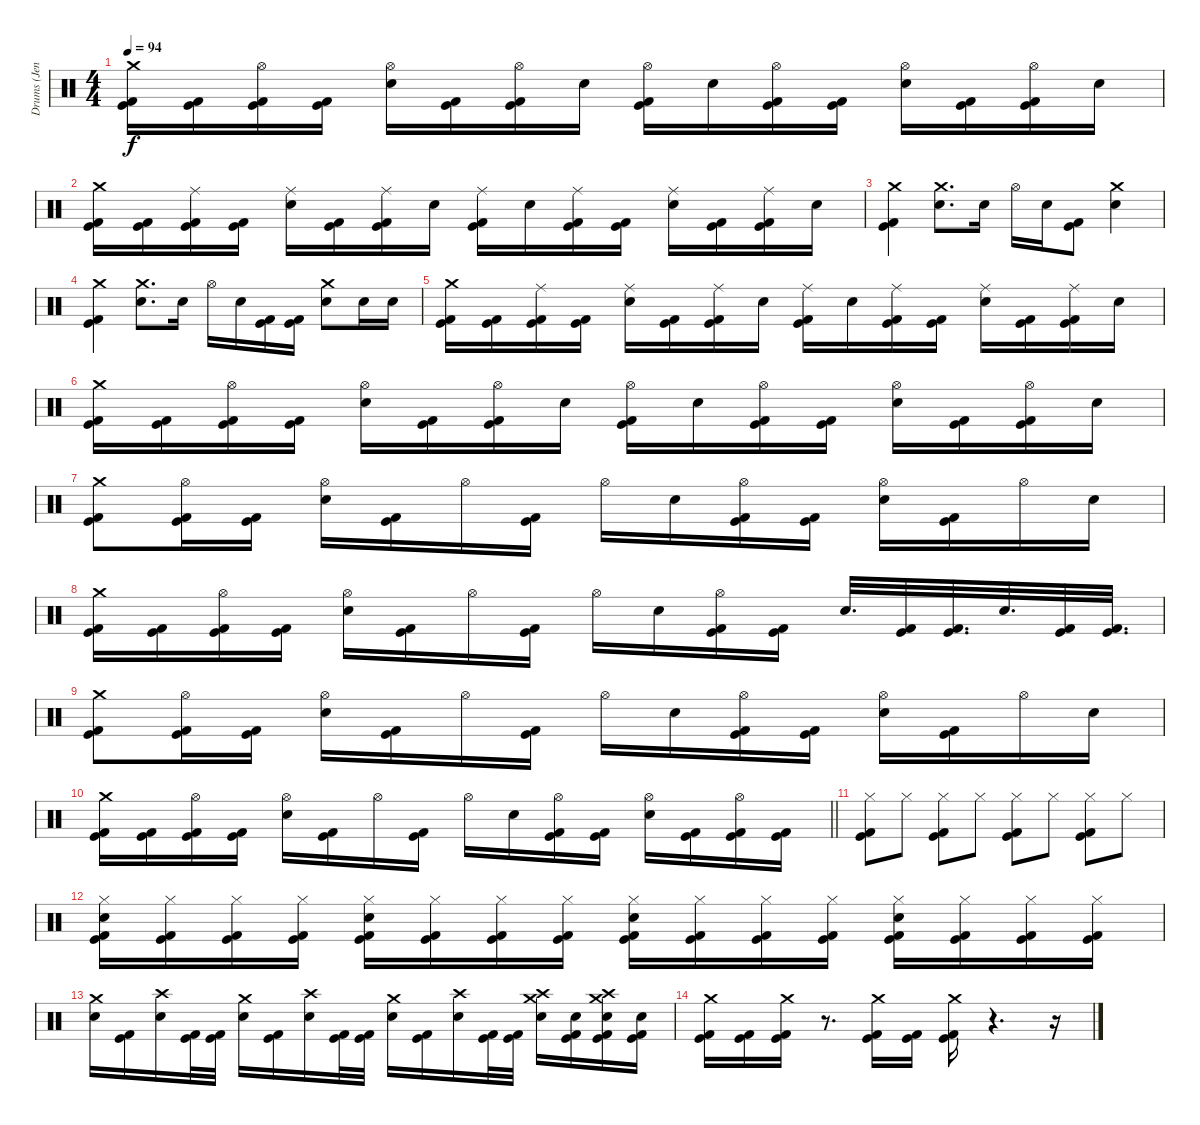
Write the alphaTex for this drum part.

\track ("Drums (Jen Ledger)" "Drums (Jen") {instrument percussion}
\staff {score}
\articulation defaults
\ts (4 4)
\tempo 94
\clef neutral
\ks c
("Crash medium (hit)" "Kick (hit) 2" "Kick (hit)").16{dy f} ("Kick (hit) 2" "Kick (hit)").16 ("Hi-Hat (open)" "Kick (hit) 2" "Kick (hit)").16 ("Kick (hit) 2" "Kick (hit)").16 ("Electric Snare (hit)" "Hi-Hat (open)").16 ("Kick (hit) 2" "Kick (hit)").16 ("Hi-Hat (open)" "Kick (hit) 2" "Kick (hit)").16 "Electric Snare (hit)".16 ("Hi-Hat (open)" "Kick (hit) 2" "Kick (hit)").16 "Electric Snare (hit)".16 ("Hi-Hat (open)" "Kick (hit) 2" "Kick (hit)").16 ("Kick (hit) 2" "Kick (hit)").16 ("Electric Snare (hit)" "Hi-Hat (open)").16 ("Kick (hit) 2" "Kick (hit)").16 ("Hi-Hat (open)" "Kick (hit) 2" "Kick (hit)").16 "Electric Snare (hit)".16 |
("Crash medium (hit)" "Kick (hit) 2" "Kick (hit)").16 ("Kick (hit) 2" "Kick (hit)").16 ("Ride (middle)" "Kick (hit) 2" "Kick (hit)").16 ("Kick (hit) 2" "Kick (hit)").16 ("Electric Snare (hit)" "Ride (middle)").16 ("Kick (hit) 2" "Kick (hit)").16 ("Ride (middle)" "Kick (hit) 2" "Kick (hit)").16 "Electric Snare (hit)".16 ("Ride (middle)" "Kick (hit) 2" "Kick (hit)").16 "Electric Snare (hit)".16 ("Ride (middle)" "Kick (hit) 2" "Kick (hit)").16 ("Kick (hit) 2" "Kick (hit)").16 ("Electric Snare (hit)" "Ride (middle)").16 ("Kick (hit) 2" "Kick (hit)").16 ("Ride (middle)" "Kick (hit) 2" "Kick (hit)").16 "Electric Snare (hit)".16 |
("Crash medium (hit)" "Kick (hit) 2" "Kick (hit)").4 ("Electric Snare (hit)" "Crash medium (hit)").8{d} "Electric Snare (hit)".16 "Hi-Hat (open)".16 "Electric Snare (hit)".16 ("Kick (hit) 2" "Kick (hit)").8 ("Electric Snare (hit)" "Crash medium (hit)").4 |
("Crash medium (hit)" "Kick (hit) 2" "Kick (hit)").4 ("Electric Snare (hit)" "Crash medium (hit)").8{d} "Electric Snare (hit)".16 "Hi-Hat (open)".16 "Electric Snare (hit)".16 ("Kick (hit) 2" "Kick (hit)").16 ("Kick (hit) 2" "Kick (hit)").16 ("Electric Snare (hit)" "Crash medium (hit)").8 "Electric Snare (hit)".16 "Electric Snare (hit)".16 |
("Crash medium (hit)" "Kick (hit) 2" "Kick (hit)").16 ("Kick (hit) 2" "Kick (hit)").16 ("Ride (middle)" "Kick (hit) 2" "Kick (hit)").16 ("Kick (hit) 2" "Kick (hit)").16 ("Electric Snare (hit)" "Ride (middle)").16 ("Kick (hit) 2" "Kick (hit)").16 ("Ride (middle)" "Kick (hit) 2" "Kick (hit)").16 "Electric Snare (hit)".16 ("Ride (middle)" "Kick (hit) 2" "Kick (hit)").16 "Electric Snare (hit)".16 ("Ride (middle)" "Kick (hit) 2" "Kick (hit)").16 ("Kick (hit) 2" "Kick (hit)").16 ("Electric Snare (hit)" "Ride (middle)").16 ("Kick (hit) 2" "Kick (hit)").16 ("Ride (middle)" "Kick (hit) 2" "Kick (hit)").16 "Electric Snare (hit)".16 |
("Crash medium (hit)" "Kick (hit) 2" "Kick (hit)").16 ("Kick (hit) 2" "Kick (hit)").16 ("Hi-Hat (open)" "Kick (hit) 2" "Kick (hit)").16 ("Kick (hit) 2" "Kick (hit)").16 ("Electric Snare (hit)" "Hi-Hat (open)").16 ("Kick (hit) 2" "Kick (hit)").16 ("Hi-Hat (open)" "Kick (hit) 2" "Kick (hit)").16 "Electric Snare (hit)".16 ("Hi-Hat (open)" "Kick (hit) 2" "Kick (hit)").16 "Electric Snare (hit)".16 ("Hi-Hat (open)" "Kick (hit) 2" "Kick (hit)").16 ("Kick (hit) 2" "Kick (hit)").16 ("Electric Snare (hit)" "Hi-Hat (open)").16 ("Kick (hit) 2" "Kick (hit)").16 ("Hi-Hat (open)" "Kick (hit) 2" "Kick (hit)").16 "Electric Snare (hit)".16 |
("Crash medium (hit)" "Kick (hit) 2" "Kick (hit)").8 ("Hi-Hat (open)" "Kick (hit) 2" "Kick (hit)").16 ("Kick (hit) 2" "Kick (hit)").16 ("Electric Snare (hit)" "Hi-Hat (open)").16 ("Kick (hit) 2" "Kick (hit)").16 "Hi-Hat (open)".16 ("Kick (hit) 2" "Kick (hit)").16 "Hi-Hat (open)".16 "Electric Snare (hit)".16 ("Hi-Hat (open)" "Kick (hit) 2" "Kick (hit)").16 ("Kick (hit) 2" "Kick (hit)").16 ("Electric Snare (hit)" "Hi-Hat (open)").16 ("Kick (hit) 2" "Kick (hit)").16 "Hi-Hat (open)".16 "Electric Snare (hit)".16 |
("Crash medium (hit)" "Kick (hit) 2" "Kick (hit)").16 ("Kick (hit) 2" "Kick (hit)").16 ("Hi-Hat (open)" "Kick (hit) 2" "Kick (hit)").16 ("Kick (hit) 2" "Kick (hit)").16 ("Electric Snare (hit)" "Hi-Hat (open)").16 ("Kick (hit) 2" "Kick (hit)").16 "Hi-Hat (open)".16 ("Kick (hit) 2" "Kick (hit)").16 "Hi-Hat (open)".16 "Electric Snare (hit)".16 ("Hi-Hat (open)" "Kick (hit) 2" "Kick (hit)").16 ("Kick (hit) 2" "Kick (hit)").16 "Electric Snare (hit)".32{d} ("Kick (hit) 2" "Kick (hit)").32 ("Kick (hit) 2" "Kick (hit)").32{d} "Electric Snare (hit)".32{d} ("Kick (hit) 2" "Kick (hit)").32 ("Kick (hit) 2" "Kick (hit)").32{d} |
("Crash medium (hit)" "Kick (hit) 2" "Kick (hit)").8 ("Hi-Hat (open)" "Kick (hit) 2" "Kick (hit)").16 ("Kick (hit) 2" "Kick (hit)").16 ("Electric Snare (hit)" "Hi-Hat (open)").16 ("Kick (hit) 2" "Kick (hit)").16 "Hi-Hat (open)".16 ("Kick (hit) 2" "Kick (hit)").16 "Hi-Hat (open)".16 "Electric Snare (hit)".16 ("Hi-Hat (open)" "Kick (hit) 2" "Kick (hit)").16 ("Kick (hit) 2" "Kick (hit)").16 ("Electric Snare (hit)" "Hi-Hat (open)").16 ("Kick (hit) 2" "Kick (hit)").16 "Hi-Hat (open)".16 "Electric Snare (hit)".16 |
\barLineRight lightlight
("Crash medium (hit)" "Kick (hit) 2" "Kick (hit)").16 ("Kick (hit) 2" "Kick (hit)").16 ("Hi-Hat (open)" "Kick (hit) 2" "Kick (hit)").16 ("Kick (hit) 2" "Kick (hit)").16 ("Electric Snare (hit)" "Hi-Hat (open)").16 ("Kick (hit) 2" "Kick (hit)").16 "Hi-Hat (open)".16 ("Kick (hit) 2" "Kick (hit)").16 "Hi-Hat (open)".16 "Electric Snare (hit)".16 ("Hi-Hat (open)" "Kick (hit) 2" "Kick (hit)").16 ("Kick (hit) 2" "Kick (hit)").16 ("Electric Snare (hit)" "Hi-Hat (open)").16 ("Kick (hit) 2" "Kick (hit)").16 ("Hi-Hat (open)" "Kick (hit) 2" "Kick (hit)").16 ("Kick (hit) 2" "Kick (hit)").16 |
("Hi-Hat (closed)" "Kick (hit) 2" "Kick (hit)").8 "Hi-Hat (closed)".8 ("Hi-Hat (closed)" "Kick (hit) 2" "Kick (hit)").8 "Hi-Hat (closed)".8 ("Hi-Hat (closed)" "Kick (hit) 2" "Kick (hit)").8 "Hi-Hat (closed)".8 ("Hi-Hat (closed)" "Kick (hit) 2" "Kick (hit)").8 "Hi-Hat (closed)".8 |
("Hi-Hat (closed)" "Electric Snare (hit)" "Kick (hit) 2" "Kick (hit)").16 ("Hi-Hat (closed)" "Kick (hit)" "Kick (hit) 2").16 ("Hi-Hat (closed)" "Kick (hit) 2" "Kick (hit)").16 ("Hi-Hat (closed)" "Kick (hit)" "Kick (hit) 2").16 ("Hi-Hat (closed)" "Electric Snare (hit)" "Kick (hit)" "Kick (hit) 2").16 ("Hi-Hat (closed)" "Kick (hit)" "Kick (hit) 2").16 ("Hi-Hat (closed)" "Kick (hit)" "Kick (hit) 2").16 ("Hi-Hat (closed)" "Kick (hit)" "Kick (hit) 2").16 ("Hi-Hat (closed)" "Electric Snare (hit)" "Kick (hit)" "Kick (hit) 2").16 ("Hi-Hat (closed)" "Kick (hit)" "Kick (hit) 2").16 ("Hi-Hat (closed)" "Kick (hit)" "Kick (hit) 2").16 ("Hi-Hat (closed)" "Kick (hit)" "Kick (hit) 2").16 ("Hi-Hat (closed)" "Electric Snare (hit)" "Kick (hit)" "Kick (hit) 2").16 ("Hi-Hat (closed)" "Kick (hit)" "Kick (hit) 2").16 ("Hi-Hat (closed)" "Kick (hit)" "Kick (hit) 2").16 ("Hi-Hat (closed)" "Kick (hit)" "Kick (hit) 2").16 |
("Crash medium (hit)" "Electric Snare (hit)").16 ("Kick (hit) 2" "Kick (hit)").16 ("Crash high (hit)" "Electric Snare (hit)").16 ("Kick (hit) 2" "Kick (hit)").32 ("Kick (hit) 2" "Kick (hit)").32 ("Crash medium (hit)" "Electric Snare (hit)").16 ("Kick (hit) 2" "Kick (hit)").16 ("Crash high (hit)" "Electric Snare (hit)").16 ("Kick (hit) 2" "Kick (hit)").32 ("Kick (hit) 2" "Kick (hit)").32 ("Crash medium (hit)" "Electric Snare (hit)").16 ("Kick (hit) 2" "Kick (hit)").16 ("Crash high (hit)" "Electric Snare (hit)").16 ("Kick (hit) 2" "Kick (hit)").32 ("Kick (hit) 2" "Kick (hit)").32 ("Crash high (hit)" "Crash medium (hit)" "Electric Snare (hit)").16 ("Electric Snare (hit)" "Kick (hit)" "Kick (hit) 2").16 ("Crash high (hit)" "Crash medium (hit)" "Electric Snare (hit)" "Kick (hit)" "Kick (hit) 2").16 ("Electric Snare (hit)" "Kick (hit)" "Kick (hit) 2").16 |
("Crash medium (hit)" "Kick (hit) 2" "Kick (hit)").16 ("Kick (hit) 2" "Kick (hit)").16 ("Crash medium (hit)" "Kick (hit) 2" "Kick (hit)").16 r.8{d} ("Crash medium (hit)" "Kick (hit) 2" "Kick (hit)").16 ("Kick (hit) 2" "Kick (hit)").16 ("Crash medium (hit)" "Kick (hit) 2" "Kick (hit)").16 r.4{d} r.16
